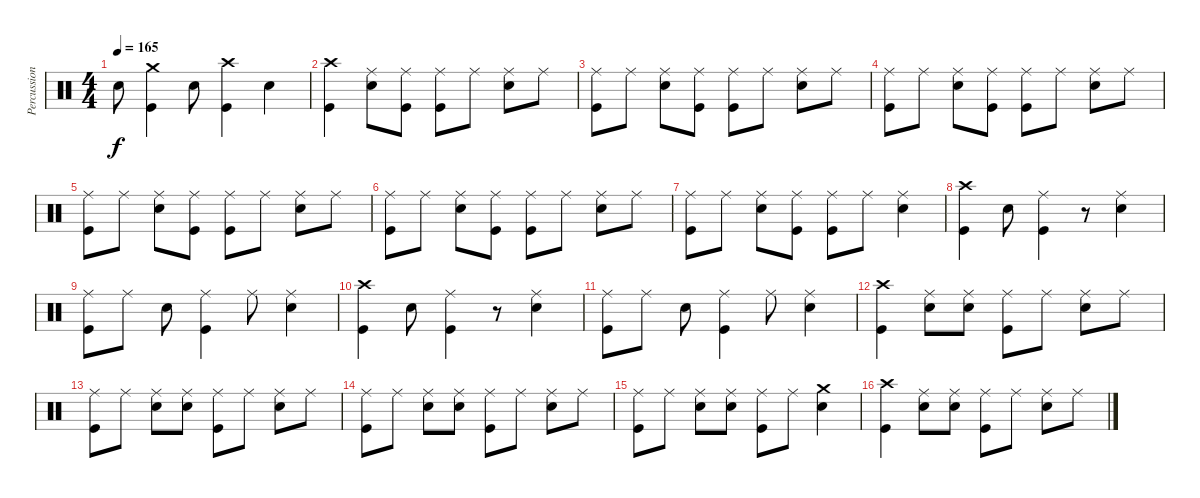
\track ("Percussion" "Percussion") {instrument percussion}
\staff {score}
\articulation defaults
\ts (4 4)
\tempo 165
\clef neutral
\ks c "Snare (hit) 2".8{dy f}
("Kick (hit)" "Crash medium (hit)").4 "Snare (hit) 2".8 ("Kick (hit)" "Crash high (hit)").4 "Snare (hit) 2".4 |
("Kick (hit)" "Crash high (hit)").4 ("Ride (middle)" "Snare (hit) 2").8 ("Kick (hit)" "Ride (middle)").8 ("Kick (hit)" "Ride (middle)").8 "Ride (middle)".8 ("Ride (middle)" "Snare (hit) 2").8 "Ride (middle)".8 |
("Kick (hit)" "Ride (middle)").8 "Ride (middle)".8 ("Ride (middle)" "Snare (hit) 2").8 ("Kick (hit)" "Ride (middle)").8 ("Kick (hit)" "Ride (middle)").8 "Ride (middle)".8 ("Ride (middle)" "Snare (hit) 2").8 "Ride (middle)".8 |
("Kick (hit)" "Ride (middle)").8 "Ride (middle)".8 ("Ride (middle)" "Snare (hit) 2").8 ("Kick (hit)" "Ride (middle)").8 ("Kick (hit)" "Ride (middle)").8 "Ride (middle)".8 ("Ride (middle)" "Snare (hit) 2").8 "Ride (middle)".8 |
("Kick (hit)" "Ride (middle)").8 "Ride (middle)".8 ("Ride (middle)" "Snare (hit) 2").8 ("Kick (hit)" "Ride (middle)").8 ("Kick (hit)" "Ride (middle)").8 "Ride (middle)".8 ("Ride (middle)" "Snare (hit) 2").8 "Ride (middle)".8 |
("Kick (hit)" "Ride (middle)").8 "Ride (middle)".8 ("Ride (middle)" "Snare (hit) 2").8 ("Kick (hit)" "Ride (middle)").8 ("Kick (hit)" "Ride (middle)").8 "Ride (middle)".8 ("Ride (middle)" "Snare (hit) 2").8 "Ride (middle)".8 |
("Kick (hit)" "Ride (middle)").8 "Ride (middle)".8 ("Ride (middle)" "Snare (hit) 2").8 ("Kick (hit)" "Ride (middle)").8 ("Kick (hit)" "Ride (middle)").8 "Ride (middle)".8 ("Ride (middle)" "Snare (hit) 2").4 |
("Kick (hit)" "Crash high (hit)").4 "Snare (hit) 2".8 ("Kick (hit)" "Ride (middle)").4 r.8 ("Ride (middle)" "Snare (hit) 2").4 |
("Kick (hit)" "Ride (middle)").8 "Ride (middle)".8 "Snare (hit) 2".8 ("Kick (hit)" "Ride (middle)").4 "Ride (middle)".8 ("Ride (middle)" "Snare (hit) 2").4 |
("Kick (hit)" "Crash high (hit)").4 "Snare (hit) 2".8 ("Kick (hit)" "Ride (middle)").4 r.8 ("Ride (middle)" "Snare (hit) 2").4 |
("Kick (hit)" "Ride (middle)").8 "Ride (middle)".8 "Snare (hit) 2".8 ("Kick (hit)" "Ride (middle)").4 "Ride (middle)".8 ("Ride (middle)" "Snare (hit) 2").4 |
("Kick (hit)" "Crash high (hit)").4 ("Ride (middle)" "Snare (hit) 2").8 ("Ride (middle)" "Snare (hit) 2").8 ("Kick (hit)" "Ride (middle)").8 "Ride (middle)".8 ("Ride (middle)" "Snare (hit) 2").8 "Ride (middle)".8 |
("Kick (hit)" "Ride (middle)").8 "Ride (middle)".8 ("Ride (middle)" "Snare (hit) 2").8 ("Ride (middle)" "Snare (hit) 2").8 ("Kick (hit)" "Ride (middle)").8 "Ride (middle)".8 ("Ride (middle)" "Snare (hit) 2").8 "Ride (middle)".8 |
("Kick (hit)" "Ride (middle)").8 "Ride (middle)".8 ("Ride (middle)" "Snare (hit) 2").8 ("Ride (middle)" "Snare (hit) 2").8 ("Kick (hit)" "Ride (middle)").8 "Ride (middle)".8 ("Ride (middle)" "Snare (hit) 2").8 "Ride (middle)".8 |
("Kick (hit)" "Ride (middle)").8 "Ride (middle)".8 ("Ride (middle)" "Snare (hit) 2").8 ("Ride (middle)" "Snare (hit) 2").8 ("Kick (hit)" "Ride (middle)").8 "Ride (middle)".8 ("Crash medium (hit)" "Snare (hit) 2").4 |
("Kick (hit)" "Crash high (hit)").4 ("Ride (middle)" "Snare (hit) 2").8 ("Ride (middle)" "Snare (hit) 2").8 ("Kick (hit)" "Ride (middle)").8 "Ride (middle)".8 ("Ride (middle)" "Snare (hit) 2").8 "Ride (middle)".8
